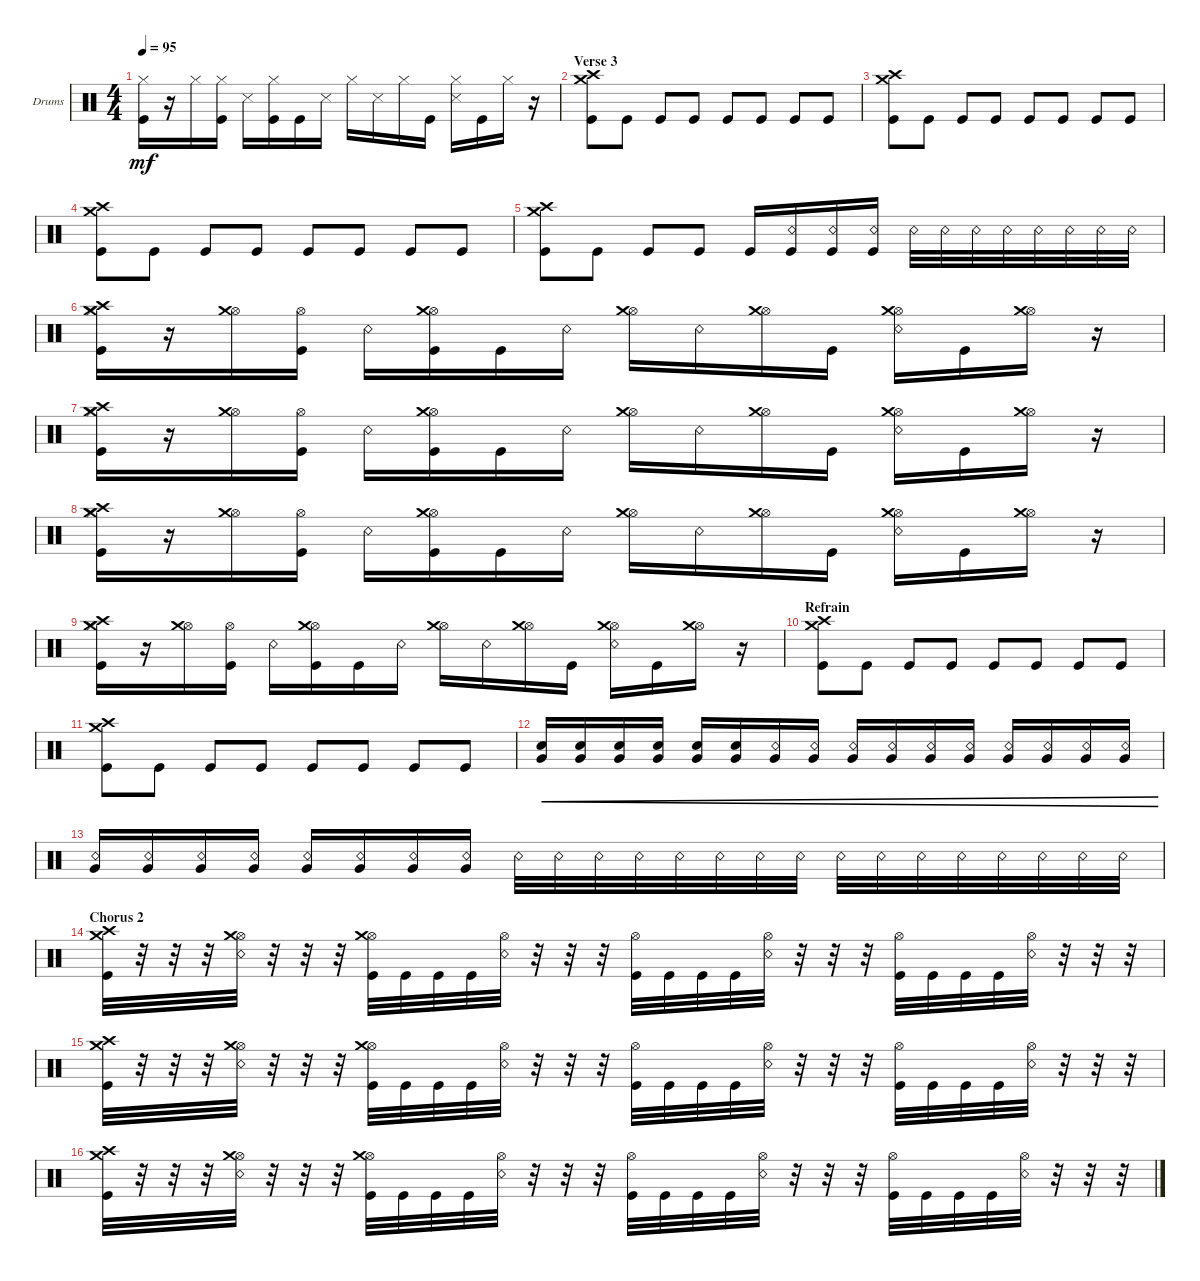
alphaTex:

\bracketExtendMode groupsimilarinstruments
\firstSystemTrackNameOrientation horizontal
\otherSystemsTrackNameOrientation horizontal
\track ("Drumkit" "Drums") {instrument percussion}
\staff {score}
\articulation defaults
\ts (4 4)
\tempo 95
\clef neutral
\ks c
("Kick (hit)" "Hi-Hat (closed)").16{dy mf} r.16 "Hi-Hat (closed)".16 ("Kick (hit)" "Hi-Hat (closed)").16 "Snare (side stick) 3".16 ("Kick (hit)" "Hi-Hat (closed)").16 "Kick (hit)".16 "Snare (side stick) 3".16 "Hi-Hat (closed)".16 "Snare (side stick) 3".16 "Hi-Hat (closed)".16 "Kick (hit)".16 ("Hi-Hat (closed)" "Snare (side stick) 3").16 "Kick (hit)".16 "Hi-Hat (closed)".16 r.16 |
\section ("" "Verse 3")
("Kick (hit)" "Crash medium (hit)" "Crash high (hit)").8 "Kick (hit)".8 "Kick (hit)".8 "Kick (hit)".8 "Kick (hit)".8 "Kick (hit)".8 "Kick (hit)".8 "Kick (hit)".8 |
("Crash medium (hit)" "Crash high (hit)" "Kick (hit)").8 "Kick (hit)".8 "Kick (hit)".8 "Kick (hit)".8 "Kick (hit)".8 "Kick (hit)".8 "Kick (hit)".8 "Kick (hit)".8 |
("Kick (hit)" "Crash medium (hit)" "Crash high (hit)").8 "Kick (hit)".8 "Kick (hit)".8 "Kick (hit)".8 "Kick (hit)".8 "Kick (hit)".8 "Kick (hit)".8 "Kick (hit)".8 |
("Crash medium (hit)" "Crash high (hit)" "Kick (hit)").8 "Kick (hit)".8 "Kick (hit)".8 "Kick (hit)".8 "Kick (hit)".16 ("Kick (hit)" "Snare (rim shot)").16 ("Kick (hit)" "Snare (rim shot)").16 ("Kick (hit)" "Snare (rim shot)").16 "Snare (rim shot)".32 "Snare (rim shot)".32 "Snare (rim shot)".32 "Snare (rim shot)".32 "Snare (rim shot)".32 "Snare (rim shot)".32 "Snare (rim shot)".32 "Snare (rim shot)".32 |
("Kick (hit)" "Hi-Hat (closed)" "Crash medium (hit)" "Crash high (hit)").16 r.16 ("Hi-Hat (open)" "Crash medium (hit)").16 ("Kick (hit)" "Hi-Hat (open)").16 "Snare (rim shot)".16 ("Kick (hit)" "Hi-Hat (open)" "Crash medium (hit)").16 "Kick (hit)".16 "Snare (rim shot)".16 ("Hi-Hat (open)" "Crash medium (hit)").16 "Snare (rim shot)".16 ("Hi-Hat (open)" "Crash medium (hit)").16 "Kick (hit)".16 ("Hi-Hat (open)" "Snare (rim shot)" "Crash medium (hit)").16 "Kick (hit)".16 ("Hi-Hat (open)" "Crash medium (hit)").16 r.16 |
("Kick (hit)" "Hi-Hat (closed)" "Crash medium (hit)" "Crash high (hit)").16 r.16 ("Hi-Hat (open)" "Crash medium (hit)").16 ("Kick (hit)" "Hi-Hat (open)").16 "Snare (rim shot)".16 ("Kick (hit)" "Hi-Hat (open)" "Crash medium (hit)").16 "Kick (hit)".16 "Snare (rim shot)".16 ("Hi-Hat (open)" "Crash medium (hit)").16 "Snare (rim shot)".16 ("Hi-Hat (open)" "Crash medium (hit)").16 "Kick (hit)".16 ("Hi-Hat (open)" "Snare (rim shot)" "Crash medium (hit)").16 "Kick (hit)".16 ("Hi-Hat (open)" "Crash medium (hit)").16 r.16 |
("Kick (hit)" "Hi-Hat (closed)" "Crash medium (hit)" "Crash high (hit)").16 r.16 ("Hi-Hat (open)" "Crash medium (hit)").16 ("Kick (hit)" "Hi-Hat (open)").16 "Snare (rim shot)".16 ("Kick (hit)" "Hi-Hat (open)" "Crash medium (hit)").16 "Kick (hit)".16 "Snare (rim shot)".16 ("Hi-Hat (open)" "Crash medium (hit)").16 "Snare (rim shot)".16 ("Hi-Hat (open)" "Crash medium (hit)").16 "Kick (hit)".16 ("Hi-Hat (open)" "Snare (rim shot)" "Crash medium (hit)").16 "Kick (hit)".16 ("Hi-Hat (open)" "Crash medium (hit)").16 r.16 |
("Kick (hit)" "Hi-Hat (closed)" "Crash medium (hit)" "Crash high (hit)").16 r.16 ("Hi-Hat (open)" "Crash medium (hit)").16 ("Kick (hit)" "Hi-Hat (open)").16 "Snare (rim shot)".16 ("Kick (hit)" "Hi-Hat (open)" "Crash medium (hit)").16 "Kick (hit)".16 "Snare (rim shot)".16 ("Hi-Hat (open)" "Crash medium (hit)").16 "Snare (rim shot)".16 ("Hi-Hat (open)" "Crash medium (hit)").16 "Kick (hit)".16 ("Hi-Hat (open)" "Snare (rim shot)" "Crash medium (hit)").16 "Kick (hit)".16 ("Hi-Hat (open)" "Crash medium (hit)").16 r.16 |
\section ("" "Refrain")
("Kick (hit)" "Crash medium (hit)" "Crash high (hit)").8 "Kick (hit)".8 "Kick (hit)".8 "Kick (hit)".8 "Kick (hit)".8 "Kick (hit)".8 "Kick (hit)".8 "Kick (hit)".8 |
("Crash medium (hit)" "Crash high (hit)" "Kick (hit)").8 "Kick (hit)".8 "Kick (hit)".8 "Kick (hit)".8 "Kick (hit)".8 "Kick (hit)".8 "Kick (hit)".8 "Kick (hit)".8 |
("Snare (hit) 2" "Very Low Tom (hit)").16{cre} ("Snare (hit) 2" "Very Low Tom (hit)").16{cre} ("Snare (hit) 2" "Very Low Tom (hit)").16{cre} ("Snare (hit) 2" "Very Low Tom (hit)").16{cre} ("Snare (hit) 2" "Very Low Tom (hit)").16{cre} ("Snare (hit) 2" "Very Low Tom (hit)").16{cre} ("Snare (rim shot)" "Very Low Tom (hit)").16{cre} ("Snare (rim shot)" "Very Low Tom (hit)").16{cre} ("Snare (rim shot)" "Very Low Tom (hit)").16{cre} ("Snare (rim shot)" "Very Low Tom (hit)").16{cre} ("Snare (rim shot)" "Very Low Tom (hit)").16{cre} ("Snare (rim shot)" "Very Low Tom (hit)").16{cre} ("Snare (rim shot)" "Very Low Tom (hit)").16{cre} ("Snare (rim shot)" "Very Low Tom (hit)").16{cre} ("Snare (rim shot)" "Very Low Tom (hit)").16{cre} ("Snare (rim shot)" "Very Low Tom (hit)").16{cre} |
("Snare (rim shot)" "Very Low Tom (hit)").16 ("Snare (rim shot)" "Very Low Tom (hit)").16 ("Snare (rim shot)" "Very Low Tom (hit)").16 ("Snare (rim shot)" "Very Low Tom (hit)").16 ("Snare (rim shot)" "Very Low Tom (hit)").16 ("Snare (rim shot)" "Very Low Tom (hit)").16 ("Snare (rim shot)" "Very Low Tom (hit)").16 ("Snare (rim shot)" "Very Low Tom (hit)").16 "Snare (rim shot)".32 "Snare (rim shot)".32 "Snare (rim shot)".32 "Snare (rim shot)".32 "Snare (rim shot)".32 "Snare (rim shot)".32 "Snare (rim shot)".32 "Snare (rim shot)".32 "Snare (rim shot)".32 "Snare (rim shot)".32 "Snare (rim shot)".32 "Snare (rim shot)".32 "Snare (rim shot)".32 "Snare (rim shot)".32 "Snare (rim shot)".32 "Snare (rim shot)".32 |
\section ("" "Chorus 2")
("Kick (hit)" "Crash medium (hit)" "Crash high (hit)").32 r.32 r.32 r.32 ("Snare (rim shot)" "Hi-Hat (open)" "Crash medium (hit)").32 r.32 r.32 r.32 ("Kick (hit)" "Hi-Hat (open)" "Crash medium (hit)").32 "Kick (hit)".32 "Kick (hit)".32 "Kick (hit)".32 ("Snare (rim shot)" "Hi-Hat (open)").32 r.32 r.32 r.32 ("Kick (hit)" "Hi-Hat (open)").32 "Kick (hit)".32 "Kick (hit)".32 "Kick (hit)".32 ("Snare (rim shot)" "Hi-Hat (open)").32 r.32 r.32 r.32 ("Kick (hit)" "Hi-Hat (open)").32 "Kick (hit)".32 "Kick (hit)".32 "Kick (hit)".32 ("Snare (rim shot)" "Hi-Hat (open)").32 r.32 r.32 r.32 |
("Kick (hit)" "Crash medium (hit)" "Crash high (hit)").32 r.32 r.32 r.32 ("Snare (rim shot)" "Hi-Hat (open)" "Crash medium (hit)").32 r.32 r.32 r.32 ("Kick (hit)" "Hi-Hat (open)" "Crash medium (hit)").32 "Kick (hit)".32 "Kick (hit)".32 "Kick (hit)".32 ("Snare (rim shot)" "Hi-Hat (open)").32 r.32 r.32 r.32 ("Kick (hit)" "Hi-Hat (open)").32 "Kick (hit)".32 "Kick (hit)".32 "Kick (hit)".32 ("Snare (rim shot)" "Hi-Hat (open)").32 r.32 r.32 r.32 ("Kick (hit)" "Hi-Hat (open)").32 "Kick (hit)".32 "Kick (hit)".32 "Kick (hit)".32 ("Snare (rim shot)" "Hi-Hat (open)").32 r.32 r.32 r.32 |
("Kick (hit)" "Crash medium (hit)" "Crash high (hit)").32 r.32 r.32 r.32 ("Snare (rim shot)" "Hi-Hat (open)" "Crash medium (hit)").32 r.32 r.32 r.32 ("Kick (hit)" "Hi-Hat (open)" "Crash medium (hit)").32 "Kick (hit)".32 "Kick (hit)".32 "Kick (hit)".32 ("Snare (rim shot)" "Hi-Hat (open)").32 r.32 r.32 r.32 ("Kick (hit)" "Hi-Hat (open)").32 "Kick (hit)".32 "Kick (hit)".32 "Kick (hit)".32 ("Snare (rim shot)" "Hi-Hat (open)").32 r.32 r.32 r.32 ("Kick (hit)" "Hi-Hat (open)").32 "Kick (hit)".32 "Kick (hit)".32 "Kick (hit)".32 ("Snare (rim shot)" "Hi-Hat (open)").32 r.32 r.32 r.32
